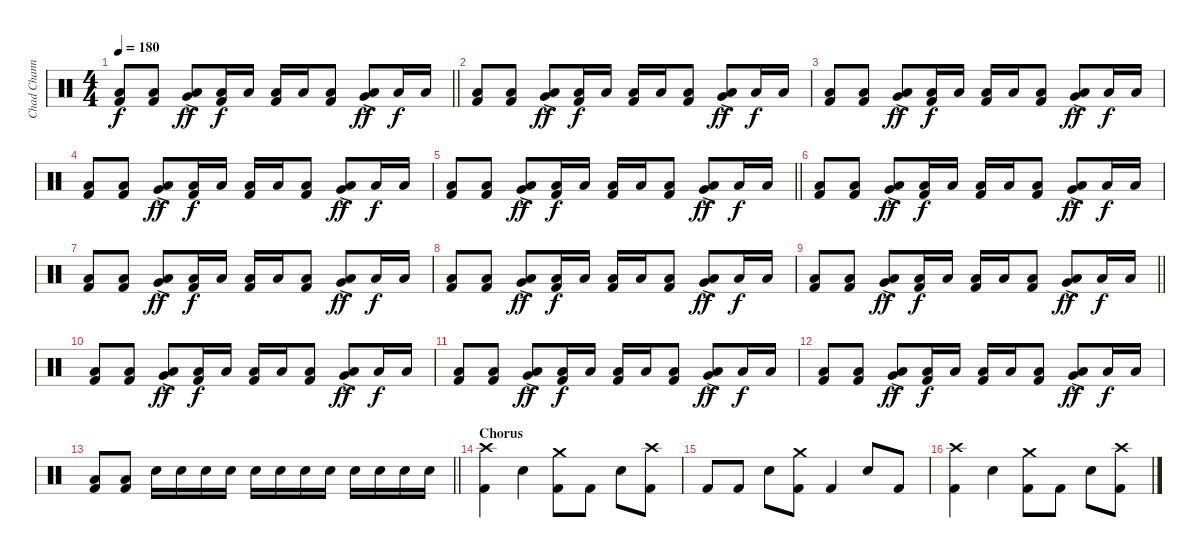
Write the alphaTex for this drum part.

\track ("Chad Channing" "Chad Chann") {instrument percussion}
\staff {score}
\articulation defaults
\ts (4 4)
\tempo 180
\clef neutral
\barLineRight lightlight
\ks c
("Low Tom (hit)" "Kick (hit) 2").8{dy f} ("Low Tom (hit)" "Kick (hit) 2").8 ("Very Low Tom (hit)"{ac} "Low Floor Tom (hit)"{ac}).8{dy ff} ("Low Tom (hit)" "Kick (hit) 2").16{dy f} "Low Tom (hit)".16 ("Low Tom (hit)" "Kick (hit) 2").16 "Low Tom (hit)".16 ("Low Tom (hit)" "Kick (hit) 2").8 ("Very Low Tom (hit)"{ac} "Low Floor Tom (hit)"{ac}).8{dy ff} "Low Tom (hit)".16{dy f} "Low Tom (hit)".16 |
("Low Tom (hit)" "Kick (hit) 2").8 ("Low Tom (hit)" "Kick (hit) 2").8 ("Very Low Tom (hit)"{ac} "Low Floor Tom (hit)"{ac}).8{dy ff} ("Low Tom (hit)" "Kick (hit) 2").16{dy f} "Low Tom (hit)".16 ("Low Tom (hit)" "Kick (hit) 2").16 "Low Tom (hit)".16 ("Low Tom (hit)" "Kick (hit) 2").8 ("Very Low Tom (hit)"{ac} "Low Floor Tom (hit)"{ac}).8{dy ff} "Low Tom (hit)".16{dy f} "Low Tom (hit)".16 |
("Low Tom (hit)" "Kick (hit) 2").8 ("Low Tom (hit)" "Kick (hit) 2").8 ("Very Low Tom (hit)"{ac} "Low Floor Tom (hit)"{ac}).8{dy ff} ("Low Tom (hit)" "Kick (hit) 2").16{dy f} "Low Tom (hit)".16 ("Low Tom (hit)" "Kick (hit) 2").16 "Low Tom (hit)".16 ("Low Tom (hit)" "Kick (hit) 2").8 ("Very Low Tom (hit)"{ac} "Low Floor Tom (hit)"{ac}).8{dy ff} "Low Tom (hit)".16{dy f} "Low Tom (hit)".16 |
("Low Tom (hit)" "Kick (hit) 2").8 ("Low Tom (hit)" "Kick (hit) 2").8 ("Very Low Tom (hit)"{ac} "Low Floor Tom (hit)"{ac}).8{dy ff} ("Low Tom (hit)" "Kick (hit) 2").16{dy f} "Low Tom (hit)".16 ("Low Tom (hit)" "Kick (hit) 2").16 "Low Tom (hit)".16 ("Low Tom (hit)" "Kick (hit) 2").8 ("Very Low Tom (hit)"{ac} "Low Floor Tom (hit)"{ac}).8{dy ff} "Low Tom (hit)".16{dy f} "Low Tom (hit)".16 |
\barLineRight lightlight
("Low Tom (hit)" "Kick (hit) 2").8 ("Low Tom (hit)" "Kick (hit) 2").8 ("Very Low Tom (hit)"{ac} "Low Floor Tom (hit)"{ac}).8{dy ff} ("Low Tom (hit)" "Kick (hit) 2").16{dy f} "Low Tom (hit)".16 ("Low Tom (hit)" "Kick (hit) 2").16 "Low Tom (hit)".16 ("Low Tom (hit)" "Kick (hit) 2").8 ("Very Low Tom (hit)"{ac} "Low Floor Tom (hit)"{ac}).8{dy ff} "Low Tom (hit)".16{dy f} "Low Tom (hit)".16 |
("Low Tom (hit)" "Kick (hit) 2").8 ("Low Tom (hit)" "Kick (hit) 2").8 ("Very Low Tom (hit)"{ac} "Low Floor Tom (hit)"{ac}).8{dy ff} ("Low Tom (hit)" "Kick (hit) 2").16{dy f} "Low Tom (hit)".16 ("Low Tom (hit)" "Kick (hit) 2").16 "Low Tom (hit)".16 ("Low Tom (hit)" "Kick (hit) 2").8 ("Very Low Tom (hit)"{ac} "Low Floor Tom (hit)"{ac}).8{dy ff} "Low Tom (hit)".16{dy f} "Low Tom (hit)".16 |
("Low Tom (hit)" "Kick (hit) 2").8 ("Low Tom (hit)" "Kick (hit) 2").8 ("Very Low Tom (hit)"{ac} "Low Floor Tom (hit)"{ac}).8{dy ff} ("Low Tom (hit)" "Kick (hit) 2").16{dy f} "Low Tom (hit)".16 ("Low Tom (hit)" "Kick (hit) 2").16 "Low Tom (hit)".16 ("Low Tom (hit)" "Kick (hit) 2").8 ("Very Low Tom (hit)"{ac} "Low Floor Tom (hit)"{ac}).8{dy ff} "Low Tom (hit)".16{dy f} "Low Tom (hit)".16 |
("Low Tom (hit)" "Kick (hit) 2").8 ("Low Tom (hit)" "Kick (hit) 2").8 ("Very Low Tom (hit)"{ac} "Low Floor Tom (hit)"{ac}).8{dy ff} ("Low Tom (hit)" "Kick (hit) 2").16{dy f} "Low Tom (hit)".16 ("Low Tom (hit)" "Kick (hit) 2").16 "Low Tom (hit)".16 ("Low Tom (hit)" "Kick (hit) 2").8 ("Very Low Tom (hit)"{ac} "Low Floor Tom (hit)"{ac}).8{dy ff} "Low Tom (hit)".16{dy f} "Low Tom (hit)".16 |
\barLineRight lightlight
("Low Tom (hit)" "Kick (hit) 2").8 ("Low Tom (hit)" "Kick (hit) 2").8 ("Very Low Tom (hit)"{ac} "Low Floor Tom (hit)"{ac}).8{dy ff} ("Low Tom (hit)" "Kick (hit) 2").16{dy f} "Low Tom (hit)".16 ("Low Tom (hit)" "Kick (hit) 2").16 "Low Tom (hit)".16 ("Low Tom (hit)" "Kick (hit) 2").8 ("Very Low Tom (hit)"{ac} "Low Floor Tom (hit)"{ac}).8{dy ff} "Low Tom (hit)".16{dy f} "Low Tom (hit)".16 |
("Low Tom (hit)" "Kick (hit) 2").8 ("Low Tom (hit)" "Kick (hit) 2").8 ("Very Low Tom (hit)"{ac} "Low Floor Tom (hit)"{ac}).8{dy ff} ("Low Tom (hit)" "Kick (hit) 2").16{dy f} "Low Tom (hit)".16 ("Low Tom (hit)" "Kick (hit) 2").16 "Low Tom (hit)".16 ("Low Tom (hit)" "Kick (hit) 2").8 ("Very Low Tom (hit)"{ac} "Low Floor Tom (hit)"{ac}).8{dy ff} "Low Tom (hit)".16{dy f} "Low Tom (hit)".16 |
("Low Tom (hit)" "Kick (hit) 2").8 ("Low Tom (hit)" "Kick (hit) 2").8 ("Very Low Tom (hit)"{ac} "Low Floor Tom (hit)"{ac}).8{dy ff} ("Low Tom (hit)" "Kick (hit) 2").16{dy f} "Low Tom (hit)".16 ("Low Tom (hit)" "Kick (hit) 2").16 "Low Tom (hit)".16 ("Low Tom (hit)" "Kick (hit) 2").8 ("Very Low Tom (hit)"{ac} "Low Floor Tom (hit)"{ac}).8{dy ff} "Low Tom (hit)".16{dy f} "Low Tom (hit)".16 |
("Low Tom (hit)" "Kick (hit) 2").8 ("Low Tom (hit)" "Kick (hit) 2").8 ("Very Low Tom (hit)"{ac} "Low Floor Tom (hit)"{ac}).8{dy ff} ("Low Tom (hit)" "Kick (hit) 2").16{dy f} "Low Tom (hit)".16 ("Low Tom (hit)" "Kick (hit) 2").16 "Low Tom (hit)".16 ("Low Tom (hit)" "Kick (hit) 2").8 ("Very Low Tom (hit)"{ac} "Low Floor Tom (hit)"{ac}).8{dy ff} "Low Tom (hit)".16{dy f} "Low Tom (hit)".16 |
\barLineRight lightlight
("Low Tom (hit)" "Kick (hit) 2").8 ("Low Tom (hit)" "Kick (hit) 2").8 "Snare (hit) 2".16 "Snare (hit) 2".16 "Snare (hit) 2".16 "Snare (hit) 2".16 "Snare (hit) 2".16 "Snare (hit) 2".16 "Snare (hit) 2".16 "Snare (hit) 2".16 "Snare (hit) 2".16 "Snare (hit) 2".16 "Snare (hit) 2".16 "Snare (hit) 2".16 |
\section ("" "Chorus")
("Crash high (hit)" "Kick (hit) 2").4 "Snare (hit) 2".4 ("Crash medium (hit)" "Kick (hit) 2").8 "Kick (hit) 2".8 "Snare (hit) 2".8 ("Crash high (hit)" "Kick (hit) 2").8 |
"Kick (hit) 2".8 "Kick (hit) 2".8 "Snare (hit) 2".8 ("Crash medium (hit)" "Kick (hit) 2").8 "Kick (hit) 2".4 "Snare (hit) 2".8 "Kick (hit) 2".8 |
("Crash high (hit)" "Kick (hit) 2").4 "Snare (hit) 2".4 ("Crash medium (hit)" "Kick (hit) 2").8 "Kick (hit) 2".8 "Snare (hit) 2".8 ("Crash high (hit)" "Kick (hit) 2").8
